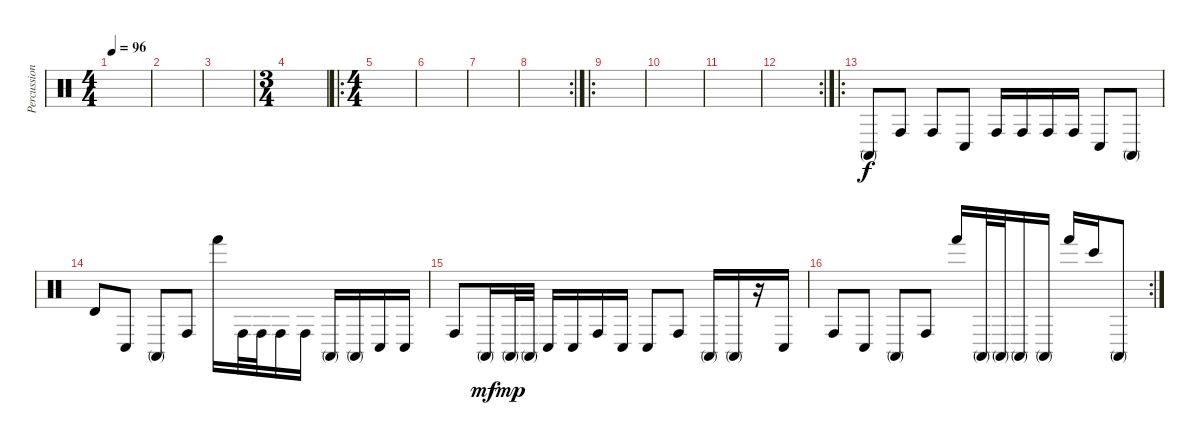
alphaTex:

\track ("Percussions" "Percussion") {instrument percussion}
\staff {score}
\articulation defaults
\ts (4 4)
\tempo 96
\clef neutral
\ks c
|
|
|
\ts (3 4)
|
\ro
\ts (4 4)
|
|
|
\rc 2
|
\ro
|
|
|
\rc 2
|
\ro "Conga high (mute)".8 "Conga high (hit)".8 "Conga high (hit)".8 "Conga low (hit)".8 "Conga high (hit)".16 "Conga high (hit)".16 "Conga high (hit)".16 "Conga high (hit)".16 "Conga low (hit)".8 "Conga high (mute)".8
|
"Timbale high (hit)".8 "Conga low (hit)".8 "Conga high (mute)".8 "Conga high (hit)".8 "Hand (hit)".16 "Conga high (hit)".32 "Conga high (hit)".32 "Conga high (hit)".16 "Conga high (hit)".16 "Conga high (mute)".16 "Conga high (mute)".16 "Conga low (hit)".16 "Conga low (hit)".16 |
"Conga high (hit)".8 "Conga high (mute)".16{dy mf} "Conga high (mute)".32{dy mp} "Conga high (mute)".32 "Conga low (hit)".16 "Conga low (hit)".16 "Conga high (hit)".16 "Conga low (hit)".16 "Conga low (hit)".8 "Conga high (hit)".8 "Conga high (mute)".16 "Conga high (mute)".16 r.16 "Conga low (hit)".16 |
\rc 2 "Conga high (hit)".8 "Conga low (hit)".8 "Conga high (mute)".8 "Conga high (hit)".8 "Hand (hit)".16 "Conga high (mute)".32 "Conga high (mute)".32 "Conga high (mute)".16 "Conga high (mute)".16 "Hand (hit)".16 "Bongo High (hit)".16 "Conga high (mute)".8
